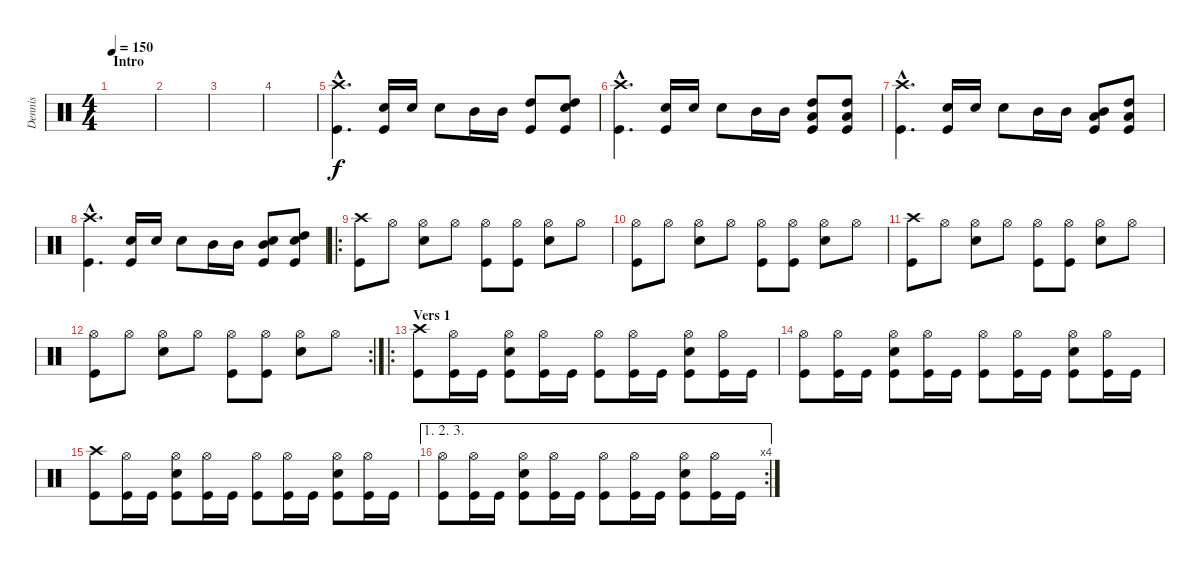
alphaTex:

\track ("Dennis" "Dennis") {instrument percussion}
\staff {score}
\articulation defaults
\ts (4 4)
\section ("" "Intro")
\tempo 150
\clef neutral
\ks c
|
|
|
|
("Crash high (hit)"{hac} "Kick (hit)"{hac}).4{d} ("Snare (hit) 2" "Kick (hit)").16 "Snare (hit) 2".16 "Snare (hit) 2".8 "Mid Tom (hit)".16 "Mid Tom (hit)".16 ("High Tom (hit)" "Kick (hit)").8 ("High Tom (hit)" "Snare (hit) 2" "Kick (hit)").8 |
("Crash high (hit)"{hac} "Kick (hit)"{hac}).4{d} ("Snare (hit) 2" "Kick (hit)").16 "Snare (hit) 2".16 "Snare (hit) 2".8 "Mid Tom (hit)".16 "Mid Tom (hit)".16 ("High Tom (hit)" "Low Floor Tom (hit)" "Kick (hit)").8 ("High Tom (hit)" "Low Floor Tom (hit)" "Kick (hit)").8 |
("Crash high (hit)"{hac} "Kick (hit)"{hac}).4{d} ("Snare (hit) 2" "Kick (hit)").16 "Snare (hit) 2".16 "Snare (hit) 2".8 "Mid Tom (hit)".16 "Mid Tom (hit)".16 ("Mid Tom (hit)" "Low Floor Tom (hit)" "Kick (hit)").8 ("High Tom (hit)" "Low Floor Tom (hit)" "Kick (hit)").8 |
("Crash high (hit)"{hac} "Kick (hit)"{hac}).4{d} ("Snare (hit) 2" "Kick (hit)").16 "Snare (hit) 2".16 "Snare (hit) 2".8 "Mid Tom (hit)".16 "Mid Tom (hit)".16 ("Mid Tom (hit)" "Snare (hit) 2" "Kick (hit)").8 ("High Tom (hit)" "Snare (hit) 2" "Kick (hit)").8 |
\ro
("Crash high (hit)" "Kick (hit)").8 "Hi-Hat (open)".8 ("Hi-Hat (open)" "Snare (hit) 2").8 "Hi-Hat (open)".8 ("Hi-Hat (open)" "Kick (hit)").8 ("Hi-Hat (open)" "Kick (hit)").8 ("Hi-Hat (open)" "Snare (hit) 2").8 "Hi-Hat (open)".8 |
("Hi-Hat (open)" "Kick (hit)").8 "Hi-Hat (open)".8 ("Hi-Hat (open)" "Snare (hit) 2").8 "Hi-Hat (open)".8 ("Hi-Hat (open)" "Kick (hit)").8 ("Hi-Hat (open)" "Kick (hit)").8 ("Hi-Hat (open)" "Snare (hit) 2").8 "Hi-Hat (open)".8 |
("Crash high (hit)" "Kick (hit)").8 "Hi-Hat (open)".8 ("Hi-Hat (open)" "Snare (hit) 2").8 "Hi-Hat (open)".8 ("Hi-Hat (open)" "Kick (hit)").8 ("Hi-Hat (open)" "Kick (hit)").8 ("Hi-Hat (open)" "Snare (hit) 2").8 "Hi-Hat (open)".8 |
\rc 2
("Hi-Hat (open)" "Kick (hit)").8 "Hi-Hat (open)".8 ("Hi-Hat (open)" "Snare (hit) 2").8 "Hi-Hat (open)".8 ("Hi-Hat (open)" "Kick (hit)").8 ("Hi-Hat (open)" "Kick (hit)").8 ("Hi-Hat (open)" "Snare (hit) 2").8 "Hi-Hat (open)".8 |
\ro
\section ("" "Vers 1")
("Crash high (hit)" "Kick (hit)").8 ("Hi-Hat (open)" "Kick (hit)").16 "Kick (hit)".16 ("Hi-Hat (open)" "Kick (hit)" "Snare (hit) 2").8 ("Hi-Hat (open)" "Kick (hit)").16 "Kick (hit)".16 ("Hi-Hat (open)" "Kick (hit)").8 ("Hi-Hat (open)" "Kick (hit)").16 "Kick (hit)".16 ("Hi-Hat (open)" "Kick (hit)" "Snare (hit) 2").8 ("Hi-Hat (open)" "Kick (hit)").16 "Kick (hit)".16 |
("Hi-Hat (open)" "Kick (hit)").8 ("Hi-Hat (open)" "Kick (hit)").16 "Kick (hit)".16 ("Hi-Hat (open)" "Kick (hit)" "Snare (hit) 2").8 ("Hi-Hat (open)" "Kick (hit)").16 "Kick (hit)".16 ("Hi-Hat (open)" "Kick (hit)").8 ("Hi-Hat (open)" "Kick (hit)").16 "Kick (hit)".16 ("Hi-Hat (open)" "Kick (hit)" "Snare (hit) 2").8 ("Hi-Hat (open)" "Kick (hit)").16 "Kick (hit)".16 |
("Crash high (hit)" "Kick (hit)").8 ("Hi-Hat (open)" "Kick (hit)").16 "Kick (hit)".16 ("Hi-Hat (open)" "Kick (hit)" "Snare (hit) 2").8 ("Hi-Hat (open)" "Kick (hit)").16 "Kick (hit)".16 ("Hi-Hat (open)" "Kick (hit)").8 ("Hi-Hat (open)" "Kick (hit)").16 "Kick (hit)".16 ("Hi-Hat (open)" "Kick (hit)" "Snare (hit) 2").8 ("Hi-Hat (open)" "Kick (hit)").16 "Kick (hit)".16 |
\ae (1 2 3)
\rc 4
("Hi-Hat (open)" "Kick (hit)").8 ("Hi-Hat (open)" "Kick (hit)").16 "Kick (hit)".16 ("Hi-Hat (open)" "Kick (hit)" "Snare (hit) 2").8 ("Hi-Hat (open)" "Kick (hit)").16 "Kick (hit)".16 ("Hi-Hat (open)" "Kick (hit)").8 ("Hi-Hat (open)" "Kick (hit)").16 "Kick (hit)".16 ("Hi-Hat (open)" "Kick (hit)" "Snare (hit) 2").8 ("Hi-Hat (open)" "Kick (hit)").16 "Kick (hit)".16
